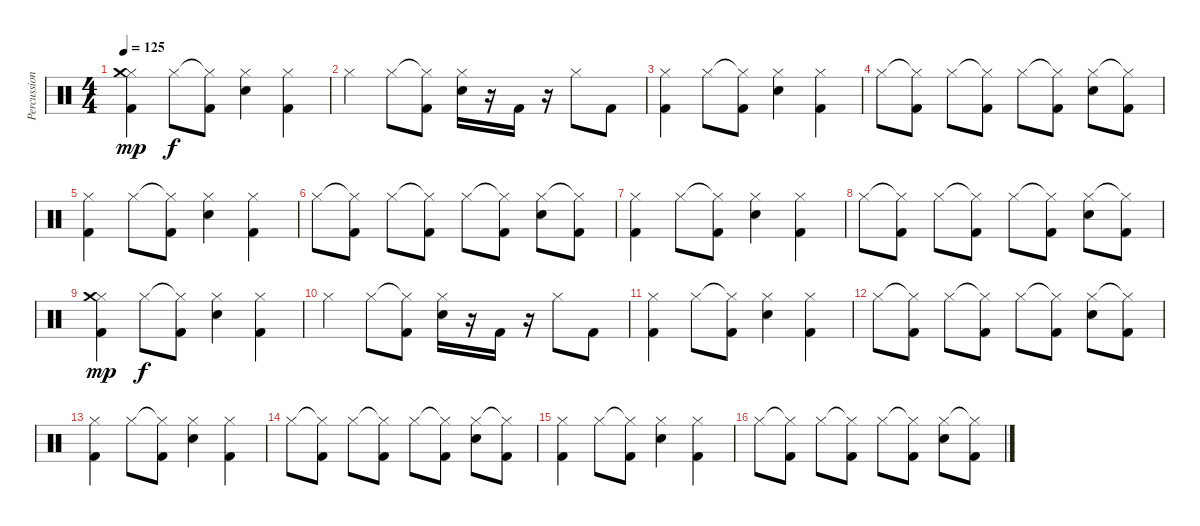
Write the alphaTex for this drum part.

\track ("Percussion" "Percussion") {instrument percussion}
\staff {score}
\articulation defaults
\ts (4 4)
\tempo 125
\clef neutral
\ks c
("Hi-Hat (closed)" "Crash medium (hit)" "Kick (hit) 2").4{dy mp} "Hi-Hat (closed)".8{dy f} ("Hi-Hat (closed)"{t} "Kick (hit) 2").8 ("Hi-Hat (closed)" "Electric Snare (hit)").4 ("Hi-Hat (closed)" "Kick (hit) 2").4 |
"Hi-Hat (closed)".4 "Hi-Hat (closed)".8 ("Hi-Hat (closed)"{t} "Kick (hit) 2").8 ("Hi-Hat (closed)" "Electric Snare (hit)").16 r.16 "Kick (hit) 2".16 r.16 "Hi-Hat (closed)".8 "Kick (hit) 2".8 |
("Hi-Hat (closed)" "Kick (hit) 2").4 "Hi-Hat (closed)".8 ("Hi-Hat (closed)"{t} "Kick (hit) 2").8 ("Hi-Hat (closed)" "Electric Snare (hit)").4 ("Hi-Hat (closed)" "Kick (hit) 2").4 |
"Hi-Hat (closed)".8 ("Hi-Hat (closed)"{t} "Kick (hit) 2").8 "Hi-Hat (closed)".8 ("Hi-Hat (closed)"{t} "Kick (hit) 2").8 "Hi-Hat (closed)".8 ("Hi-Hat (closed)"{t} "Kick (hit) 2").8 ("Hi-Hat (closed)" "Electric Snare (hit)").8 ("Hi-Hat (closed)"{t} "Kick (hit) 2").8 |
("Hi-Hat (closed)" "Kick (hit) 2").4 "Hi-Hat (closed)".8 ("Hi-Hat (closed)"{t} "Kick (hit) 2").8 ("Hi-Hat (closed)" "Electric Snare (hit)").4 ("Hi-Hat (closed)" "Kick (hit) 2").4 |
"Hi-Hat (closed)".8 ("Hi-Hat (closed)"{t} "Kick (hit) 2").8 "Hi-Hat (closed)".8 ("Hi-Hat (closed)"{t} "Kick (hit) 2").8 "Hi-Hat (closed)".8 ("Hi-Hat (closed)"{t} "Kick (hit) 2").8 ("Hi-Hat (closed)" "Electric Snare (hit)").8 ("Hi-Hat (closed)"{t} "Kick (hit) 2").8 |
("Hi-Hat (closed)" "Kick (hit) 2").4 "Hi-Hat (closed)".8 ("Hi-Hat (closed)"{t} "Kick (hit) 2").8 ("Hi-Hat (closed)" "Electric Snare (hit)").4 ("Hi-Hat (closed)" "Kick (hit) 2").4 |
"Hi-Hat (closed)".8 ("Hi-Hat (closed)"{t} "Kick (hit) 2").8 "Hi-Hat (closed)".8 ("Hi-Hat (closed)"{t} "Kick (hit) 2").8 "Hi-Hat (closed)".8 ("Hi-Hat (closed)"{t} "Kick (hit) 2").8 ("Hi-Hat (closed)" "Electric Snare (hit)").8 ("Hi-Hat (closed)"{t} "Kick (hit) 2").8 |
("Hi-Hat (closed)" "Crash medium (hit)" "Kick (hit) 2").4{dy mp} "Hi-Hat (closed)".8{dy f} ("Hi-Hat (closed)"{t} "Kick (hit) 2").8 ("Hi-Hat (closed)" "Electric Snare (hit)").4 ("Hi-Hat (closed)" "Kick (hit) 2").4 |
"Hi-Hat (closed)".4 "Hi-Hat (closed)".8 ("Hi-Hat (closed)"{t} "Kick (hit) 2").8 ("Hi-Hat (closed)" "Electric Snare (hit)").16 r.16 "Kick (hit) 2".16 r.16 "Hi-Hat (closed)".8 "Kick (hit) 2".8 |
("Hi-Hat (closed)" "Kick (hit) 2").4 "Hi-Hat (closed)".8 ("Hi-Hat (closed)"{t} "Kick (hit) 2").8 ("Hi-Hat (closed)" "Electric Snare (hit)").4 ("Hi-Hat (closed)" "Kick (hit) 2").4 |
"Hi-Hat (closed)".8 ("Hi-Hat (closed)"{t} "Kick (hit) 2").8 "Hi-Hat (closed)".8 ("Hi-Hat (closed)"{t} "Kick (hit) 2").8 "Hi-Hat (closed)".8 ("Hi-Hat (closed)"{t} "Kick (hit) 2").8 ("Hi-Hat (closed)" "Electric Snare (hit)").8 ("Hi-Hat (closed)"{t} "Kick (hit) 2").8 |
("Hi-Hat (closed)" "Kick (hit) 2").4 "Hi-Hat (closed)".8 ("Hi-Hat (closed)"{t} "Kick (hit) 2").8 ("Hi-Hat (closed)" "Electric Snare (hit)").4 ("Hi-Hat (closed)" "Kick (hit) 2").4 |
"Hi-Hat (closed)".8 ("Hi-Hat (closed)"{t} "Kick (hit) 2").8 "Hi-Hat (closed)".8 ("Hi-Hat (closed)"{t} "Kick (hit) 2").8 "Hi-Hat (closed)".8 ("Hi-Hat (closed)"{t} "Kick (hit) 2").8 ("Hi-Hat (closed)" "Electric Snare (hit)").8 ("Hi-Hat (closed)"{t} "Kick (hit) 2").8 |
("Hi-Hat (closed)" "Kick (hit) 2").4 "Hi-Hat (closed)".8 ("Hi-Hat (closed)"{t} "Kick (hit) 2").8 ("Hi-Hat (closed)" "Electric Snare (hit)").4 ("Hi-Hat (closed)" "Kick (hit) 2").4 |
"Hi-Hat (closed)".8 ("Hi-Hat (closed)"{t} "Kick (hit) 2").8 "Hi-Hat (closed)".8 ("Hi-Hat (closed)"{t} "Kick (hit) 2").8 "Hi-Hat (closed)".8 ("Hi-Hat (closed)"{t} "Kick (hit) 2").8 ("Hi-Hat (closed)" "Electric Snare (hit)").8 ("Hi-Hat (closed)"{t} "Kick (hit) 2").8
